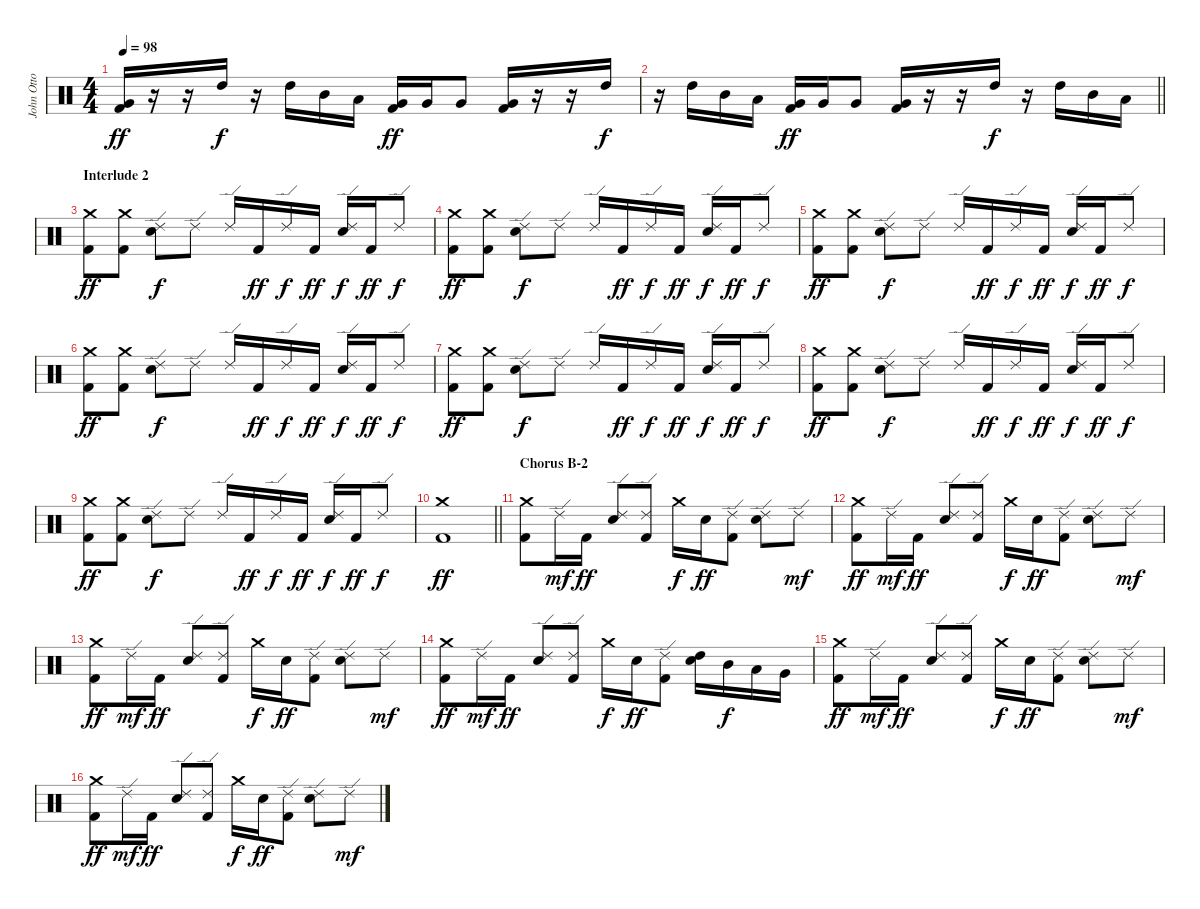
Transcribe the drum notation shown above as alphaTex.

\track ("John Otto (Drums)" "John Otto ") {instrument percussion}
\staff {score}
\articulation defaults
\ts (4 4)
\tempo 98
\clef neutral
\ks c
("Very Low Tom (hit)" "Kick (hit) 2").16{dy ff} r.16 r.16 "High Tom (hit)".16{dy f} r.16 "High Tom (hit)".16 "Mid Tom (hit)".16 "Low Tom (hit)".16 ("Very Low Tom (hit)" "Kick (hit) 2").16{dy ff} "Very Low Tom (hit)".16 "Very Low Tom (hit)".8 ("Very Low Tom (hit)" "Kick (hit) 2").16 r.16 r.16 "High Tom (hit)".16{dy f} |
\barLineRight lightlight
r.16 "High Tom (hit)".16 "Mid Tom (hit)".16 "Low Tom (hit)".16 ("Very Low Tom (hit)" "Kick (hit) 2").16{dy ff} "Very Low Tom (hit)".16 "Very Low Tom (hit)".8 ("Very Low Tom (hit)" "Kick (hit) 2").16 r.16 r.16 "High Tom (hit)".16{dy f} r.16 "High Tom (hit)".16 "Mid Tom (hit)".16 "Low Tom (hit)".16 |
\section ("" "Interlude 2")
("Crash medium (hit)" "Kick (hit) 2").8{dy ff} ("Crash medium (hit)" "Kick (hit) 2").8 ("Ride (edge) 2" "Snare (hit) 2").8{dy f} "Ride (edge) 2".8 "Ride (edge) 2".16 "Kick (hit) 2".16{dy ff} "Ride (edge) 2".16{dy f} "Kick (hit) 2".16{dy ff} ("Ride (edge) 2" "Snare (hit) 2").16{dy f} "Kick (hit) 2".16{dy ff} "Ride (edge) 2".8{dy f} |
("Crash medium (hit)" "Kick (hit) 2").8{dy ff} ("Crash medium (hit)" "Kick (hit) 2").8 ("Ride (edge) 2" "Snare (hit) 2").8{dy f} "Ride (edge) 2".8 "Ride (edge) 2".16 "Kick (hit) 2".16{dy ff} "Ride (edge) 2".16{dy f} "Kick (hit) 2".16{dy ff} ("Ride (edge) 2" "Snare (hit) 2").16{dy f} "Kick (hit) 2".16{dy ff} "Ride (edge) 2".8{dy f} |
("Crash medium (hit)" "Kick (hit) 2").8{dy ff} ("Crash medium (hit)" "Kick (hit) 2").8 ("Ride (edge) 2" "Snare (hit) 2").8{dy f} "Ride (edge) 2".8 "Ride (edge) 2".16 "Kick (hit) 2".16{dy ff} "Ride (edge) 2".16{dy f} "Kick (hit) 2".16{dy ff} ("Ride (edge) 2" "Snare (hit) 2").16{dy f} "Kick (hit) 2".16{dy ff} "Ride (edge) 2".8{dy f} |
("Crash medium (hit)" "Kick (hit) 2").8{dy ff} ("Crash medium (hit)" "Kick (hit) 2").8 ("Ride (edge) 2" "Snare (hit) 2").8{dy f} "Ride (edge) 2".8 "Ride (edge) 2".16 "Kick (hit) 2".16{dy ff} "Ride (edge) 2".16{dy f} "Kick (hit) 2".16{dy ff} ("Ride (edge) 2" "Snare (hit) 2").16{dy f} "Kick (hit) 2".16{dy ff} "Ride (edge) 2".8{dy f} |
("Crash medium (hit)" "Kick (hit) 2").8{dy ff} ("Crash medium (hit)" "Kick (hit) 2").8 ("Ride (edge) 2" "Snare (hit) 2").8{dy f} "Ride (edge) 2".8 "Ride (edge) 2".16 "Kick (hit) 2".16{dy ff} "Ride (edge) 2".16{dy f} "Kick (hit) 2".16{dy ff} ("Ride (edge) 2" "Snare (hit) 2").16{dy f} "Kick (hit) 2".16{dy ff} "Ride (edge) 2".8{dy f} |
("Crash medium (hit)" "Kick (hit) 2").8{dy ff} ("Crash medium (hit)" "Kick (hit) 2").8 ("Ride (edge) 2" "Snare (hit) 2").8{dy f} "Ride (edge) 2".8 "Ride (edge) 2".16 "Kick (hit) 2".16{dy ff} "Ride (edge) 2".16{dy f} "Kick (hit) 2".16{dy ff} ("Ride (edge) 2" "Snare (hit) 2").16{dy f} "Kick (hit) 2".16{dy ff} "Ride (edge) 2".8{dy f} |
("Crash medium (hit)" "Kick (hit) 2").8{dy ff} ("Crash medium (hit)" "Kick (hit) 2").8 ("Ride (edge) 2" "Snare (hit) 2").8{dy f} "Ride (edge) 2".8 "Ride (edge) 2".16 "Kick (hit) 2".16{dy ff} "Ride (edge) 2".16{dy f} "Kick (hit) 2".16{dy ff} ("Ride (edge) 2" "Snare (hit) 2").16{dy f} "Kick (hit) 2".16{dy ff} "Ride (edge) 2".8{dy f} |
\barLineRight lightlight
("Crash medium (hit)" "Kick (hit) 2").1{dy ff} |
\section ("" "Chorus B-2")
("Crash medium (hit)" "Kick (hit) 2").8 "Ride (edge) 2".16{dy mf} "Kick (hit) 2".16{dy ff} ("Ride (edge) 2" "Snare (hit) 2").8 ("Ride (edge) 2" "Kick (hit) 2").8 "Crash medium (hit)".16{dy f} "Snare (hit) 2".16{dy ff} ("Ride (edge) 2" "Kick (hit) 2").8 ("Ride (edge) 2" "Snare (hit) 2").8 "Ride (edge) 2".8{dy mf} |
("Crash medium (hit)" "Kick (hit) 2").8{dy ff} "Ride (edge) 2".16{dy mf} "Kick (hit) 2".16{dy ff} ("Ride (edge) 2" "Snare (hit) 2").8 ("Ride (edge) 2" "Kick (hit) 2").8 "Crash medium (hit)".16{dy f} "Snare (hit) 2".16{dy ff} ("Ride (edge) 2" "Kick (hit) 2").8 ("Ride (edge) 2" "Snare (hit) 2").8 "Ride (edge) 2".8{dy mf} |
("Crash medium (hit)" "Kick (hit) 2").8{dy ff} "Ride (edge) 2".16{dy mf} "Kick (hit) 2".16{dy ff} ("Ride (edge) 2" "Snare (hit) 2").8 ("Ride (edge) 2" "Kick (hit) 2").8 "Crash medium (hit)".16{dy f} "Snare (hit) 2".16{dy ff} ("Ride (edge) 2" "Kick (hit) 2").8 ("Ride (edge) 2" "Snare (hit) 2").8 "Ride (edge) 2".8{dy mf} |
("Crash medium (hit)" "Kick (hit) 2").8{dy ff} "Ride (edge) 2".16{dy mf} "Kick (hit) 2".16{dy ff} ("Ride (edge) 2" "Snare (hit) 2").8 ("Ride (edge) 2" "Kick (hit) 2").8 "Crash medium (hit)".16{dy f} "Snare (hit) 2".16{dy ff} ("Ride (edge) 2" "Kick (hit) 2").8 ("High Tom (hit)" "Snare (hit) 2").16 "Mid Tom (hit)".16{dy f} "Low Tom (hit)".16 "Very Low Tom (hit)".16 |
("Crash medium (hit)" "Kick (hit) 2").8{dy ff} "Ride (edge) 2".16{dy mf} "Kick (hit) 2".16{dy ff} ("Ride (edge) 2" "Snare (hit) 2").8 ("Ride (edge) 2" "Kick (hit) 2").8 "Crash medium (hit)".16{dy f} "Snare (hit) 2".16{dy ff} ("Ride (edge) 2" "Kick (hit) 2").8 ("Ride (edge) 2" "Snare (hit) 2").8 "Ride (edge) 2".8{dy mf} |
("Crash medium (hit)" "Kick (hit) 2").8{dy ff} "Ride (edge) 2".16{dy mf} "Kick (hit) 2".16{dy ff} ("Ride (edge) 2" "Snare (hit) 2").8 ("Ride (edge) 2" "Kick (hit) 2").8 "Crash medium (hit)".16{dy f} "Snare (hit) 2".16{dy ff} ("Ride (edge) 2" "Kick (hit) 2").8 ("Ride (edge) 2" "Snare (hit) 2").8 "Ride (edge) 2".8{dy mf}
